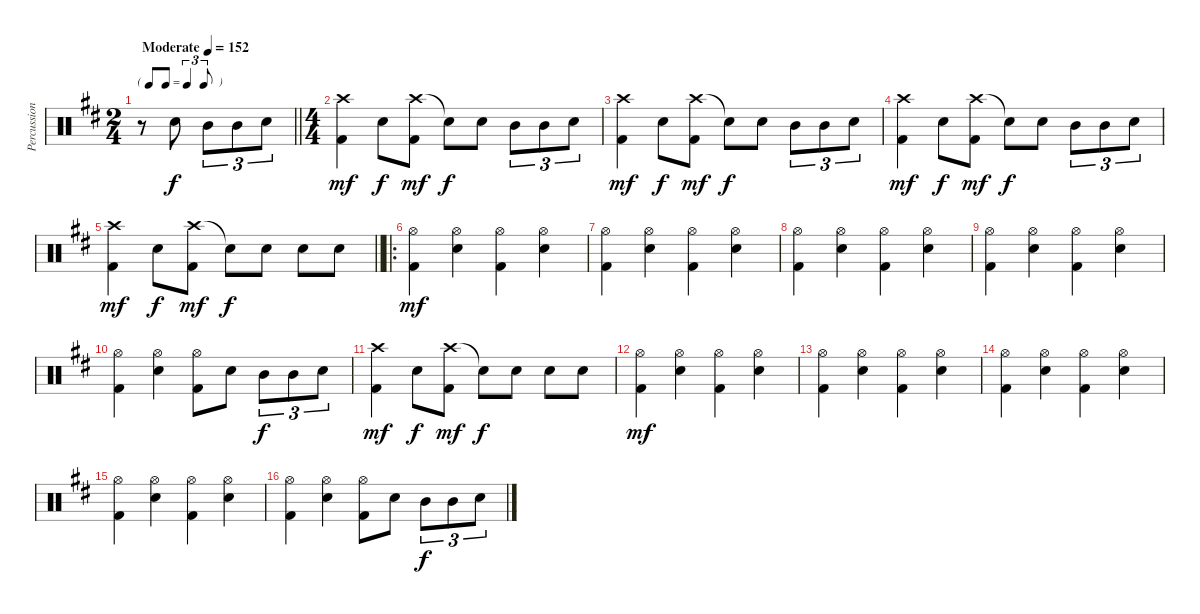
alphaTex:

\track ("Percussion" "Percussion") {instrument percussion}
\staff {score}
\articulation defaults
\ts (2 4)
\tf triplet8th
\tempo (152 "Moderate")
\clef neutral
\barLineRight lightlight
\ks d
r.8{dy f} "Snare (hit) 2".8 "Mid Tom (hit)".8{tu (3 2)} "Mid Tom (hit)".8{tu (3 2)} "Snare (hit) 2".8{tu (3 2)} |
\ts (4 4)
("Crash high (hit)" "Kick (hit) 2").4{dy mf} "Snare (hit) 2".8{dy f} ("Crash high (hit)" "Kick (hit) 2").8{dy mf} "Snare (hit)"{t}.8{dy f} "Snare (hit) 2".8 "Mid Tom (hit)".8{tu (3 2)} "Mid Tom (hit)".8{tu (3 2)} "Snare (hit) 2".8{tu (3 2)} |
("Crash high (hit)" "Kick (hit) 2").4{dy mf} "Snare (hit) 2".8{dy f} ("Crash high (hit)" "Kick (hit) 2").8{dy mf} "Snare (hit)"{t}.8{dy f} "Snare (hit) 2".8 "Mid Tom (hit)".8{tu (3 2)} "Mid Tom (hit)".8{tu (3 2)} "Snare (hit) 2".8{tu (3 2)} |
("Crash high (hit)" "Kick (hit) 2").4{dy mf} "Snare (hit) 2".8{dy f} ("Crash high (hit)" "Kick (hit) 2").8{dy mf} "Snare (hit)"{t}.8{dy f} "Snare (hit) 2".8 "Mid Tom (hit)".8{tu (3 2)} "Mid Tom (hit)".8{tu (3 2)} "Snare (hit) 2".8{tu (3 2)} |
\barLineRight lightlight
("Crash high (hit)" "Kick (hit) 2").4{dy mf} "Snare (hit) 2".8{dy f} ("Crash high (hit)" "Kick (hit) 2").8{dy mf} "Snare (hit)"{t}.8{dy f} "Snare (hit) 2".8 "Snare (hit) 2".8 "Snare (hit) 2".8 |
\ro
("Hi-Hat (open)" "Kick (hit) 2").4{dy mf} ("Hi-Hat (open)" "Snare (hit) 2").4 ("Hi-Hat (open)" "Kick (hit) 2").4 ("Hi-Hat (open)" "Snare (hit) 2").4 |
("Hi-Hat (open)" "Kick (hit) 2").4 ("Hi-Hat (open)" "Snare (hit) 2").4 ("Hi-Hat (open)" "Kick (hit) 2").4 ("Hi-Hat (open)" "Snare (hit) 2").4 |
("Hi-Hat (open)" "Kick (hit) 2").4 ("Hi-Hat (open)" "Snare (hit) 2").4 ("Hi-Hat (open)" "Kick (hit) 2").4 ("Hi-Hat (open)" "Snare (hit) 2").4 |
("Hi-Hat (open)" "Kick (hit) 2").4 ("Hi-Hat (open)" "Snare (hit) 2").4 ("Hi-Hat (open)" "Kick (hit) 2").4 ("Hi-Hat (open)" "Snare (hit) 2").4 |
("Hi-Hat (open)" "Kick (hit) 2").4 ("Hi-Hat (open)" "Snare (hit) 2").4 ("Hi-Hat (open)" "Kick (hit) 2").8 "Snare (hit) 2".8 "Mid Tom (hit)".8{tu (3 2) dy f} "Mid Tom (hit)".8{tu (3 2)} "Snare (hit) 2".8{tu (3 2)} |
("Crash high (hit)" "Kick (hit) 2").4{dy mf} "Snare (hit) 2".8{dy f} ("Crash high (hit)" "Kick (hit) 2").8{dy mf} "Snare (hit)"{t}.8{dy f} "Snare (hit) 2".8 "Snare (hit) 2".8 "Snare (hit) 2".8 |
("Hi-Hat (open)" "Kick (hit) 2").4{dy mf} ("Hi-Hat (open)" "Snare (hit) 2").4 ("Hi-Hat (open)" "Kick (hit) 2").4 ("Hi-Hat (open)" "Snare (hit) 2").4 |
("Hi-Hat (open)" "Kick (hit) 2").4 ("Hi-Hat (open)" "Snare (hit) 2").4 ("Hi-Hat (open)" "Kick (hit) 2").4 ("Hi-Hat (open)" "Snare (hit) 2").4 |
("Hi-Hat (open)" "Kick (hit) 2").4 ("Hi-Hat (open)" "Snare (hit) 2").4 ("Hi-Hat (open)" "Kick (hit) 2").4 ("Hi-Hat (open)" "Snare (hit) 2").4 |
("Hi-Hat (open)" "Kick (hit) 2").4 ("Hi-Hat (open)" "Snare (hit) 2").4 ("Hi-Hat (open)" "Kick (hit) 2").4 ("Hi-Hat (open)" "Snare (hit) 2").4 |
("Hi-Hat (open)" "Kick (hit) 2").4 ("Hi-Hat (open)" "Snare (hit) 2").4 ("Hi-Hat (open)" "Kick (hit) 2").8 "Snare (hit) 2".8 "Mid Tom (hit)".8{tu (3 2) dy f} "Mid Tom (hit)".8{tu (3 2)} "Snare (hit) 2".8{tu (3 2)}
